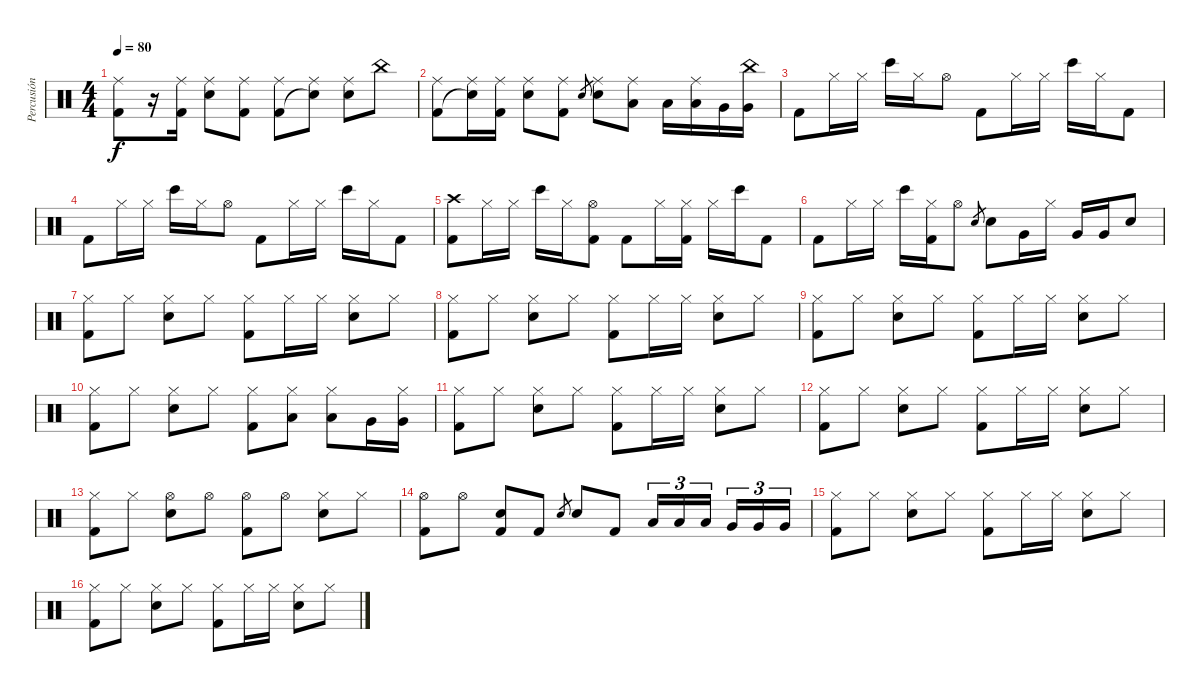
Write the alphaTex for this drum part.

\track ("Percusión" "Percusión") {instrument percussion}
\staff {score}
\articulation defaults
\ts (4 4)
\tempo 80
\clef neutral
\ks c
("Kick (hit) 2" "Ride (middle)").8{dy f} r.16 ("Kick (hit) 2" "Ride (middle)").16 ("Electric Snare (hit)" "Ride (middle)").8 ("Kick (hit) 2" "Ride (middle)").8 ("Kick (hit) 2" "Ride (middle)").8 ("Snare (hit)"{t} "Ride (middle)").8 ("Electric Snare (hit)" "Ride (middle)").8 "China (hit)".8 |
("Kick (hit) 2" "Ride (middle)").8 ("Snare (hit)"{t} "Ride (middle)").16 ("Kick (hit) 2" "Ride (middle)").16 ("Electric Snare (hit)" "Ride (middle)").8 ("Kick (hit) 2" "Ride (middle)").8 "Electric Snare (hit)".8{gr} ("Electric Snare (hit)" "Ride (middle)").8 ("Low Tom (hit)" "Ride (middle)").8 "Low Tom (hit)".16 ("Low Tom (hit)" "Ride (middle)").16 "Very Low Tom (hit)".16 ("Very Low Tom (hit)" "China (hit)").16 |
"Kick (hit) 2".8{volume 8} "Hi-Hat (closed)".16 "Hi-Hat (closed)".16 "Bongo High (hit)".16 "Hi-Hat (closed)".16 "Hi-Hat (open)".8 "Kick (hit) 2".8 "Hi-Hat (closed)".16 "Hi-Hat (closed)".16 "Bongo High (hit)".16 "Hi-Hat (closed)".16 "Kick (hit) 2".8 |
"Kick (hit) 2".8 "Hi-Hat (closed)".16 "Hi-Hat (closed)".16 "Bongo High (hit)".16 "Hi-Hat (closed)".16 "Hi-Hat (open)".8 "Kick (hit) 2".8 "Hi-Hat (closed)".16 "Hi-Hat (closed)".16 "Bongo High (hit)".16 "Hi-Hat (closed)".16 "Kick (hit) 2".8 |
("Kick (hit) 2" "Crash high (hit)").8 "Hi-Hat (closed)".16 "Hi-Hat (closed)".16 "Bongo High (hit)".16 "Hi-Hat (closed)".16 ("Kick (hit) 2" "Hi-Hat (open)").8 "Kick (hit) 2".8 "Hi-Hat (closed)".16 ("Kick (hit) 2" "Hi-Hat (closed)").16 "Hi-Hat (closed)".16 "Bongo High (hit)".16 "Kick (hit) 2".8 |
"Kick (hit) 2".8{volume 13} "Hi-Hat (closed)".16 "Hi-Hat (closed)".16 "Bongo High (hit)".16 ("Kick (hit) 2" "Hi-Hat (closed)").16 "Hi-Hat (open)".8 "Electric Snare (hit)".8{gr} "Electric Snare (hit)".8 "Very Low Tom (hit)".16 "Hi-Hat (closed)".16 "Very Low Tom (hit)".16 "Very Low Tom (hit)".16 "Electric Snare (hit)".8 |
("Kick (hit) 2" "Hi-Hat (closed)").8 "Hi-Hat (closed)".8 ("Electric Snare (hit)" "Hi-Hat (closed)").8 "Hi-Hat (closed)".8 ("Kick (hit) 2" "Hi-Hat (closed)").8 "Hi-Hat (closed)".16 "Hi-Hat (closed)".16 ("Electric Snare (hit)" "Hi-Hat (closed)").8 "Hi-Hat (closed)".8 |
("Kick (hit) 2" "Hi-Hat (closed)").8 "Hi-Hat (closed)".8 ("Electric Snare (hit)" "Hi-Hat (closed)").8 "Hi-Hat (closed)".8 ("Kick (hit) 2" "Hi-Hat (closed)").8 "Hi-Hat (closed)".16 "Hi-Hat (closed)".16 ("Electric Snare (hit)" "Hi-Hat (closed)").8 "Hi-Hat (closed)".8 |
("Kick (hit) 2" "Hi-Hat (closed)").8 "Hi-Hat (closed)".8 ("Electric Snare (hit)" "Hi-Hat (closed)").8 "Hi-Hat (closed)".8 ("Kick (hit) 2" "Hi-Hat (closed)").8 "Hi-Hat (closed)".16 "Hi-Hat (closed)".16 ("Electric Snare (hit)" "Hi-Hat (closed)").8 "Hi-Hat (closed)".8 |
("Kick (hit) 2" "Hi-Hat (closed)").8 "Hi-Hat (closed)".8 ("Electric Snare (hit)" "Hi-Hat (closed)").8 "Hi-Hat (closed)".8 ("Kick (hit) 2" "Hi-Hat (closed)").8 ("Hi-Hat (closed)" "Low Tom (hit)").8 ("Hi-Hat (closed)" "Low Tom (hit)").8 "Very Low Tom (hit)".16 ("Hi-Hat (closed)" "Very Low Tom (hit)").16 |
("Kick (hit) 2" "Hi-Hat (closed)").8 "Hi-Hat (closed)".8 ("Electric Snare (hit)" "Hi-Hat (closed)").8 "Hi-Hat (closed)".8 ("Kick (hit) 2" "Hi-Hat (closed)").8 "Hi-Hat (closed)".16 "Hi-Hat (closed)".16 ("Electric Snare (hit)" "Hi-Hat (closed)").8 "Hi-Hat (closed)".8 |
("Kick (hit) 2" "Hi-Hat (closed)").8 "Hi-Hat (closed)".8 ("Electric Snare (hit)" "Hi-Hat (closed)").8 "Hi-Hat (closed)".8 ("Kick (hit) 2" "Hi-Hat (closed)").8 "Hi-Hat (closed)".16 "Hi-Hat (closed)".16 ("Electric Snare (hit)" "Hi-Hat (closed)").8 "Hi-Hat (closed)".8 |
("Kick (hit) 2" "Hi-Hat (closed)").8 "Hi-Hat (closed)".8 ("Electric Snare (hit)" "Hi-Hat (open)").8 "Hi-Hat (open)".8 ("Kick (hit) 2" "Hi-Hat (open)").8 "Hi-Hat (open)".8 ("Electric Snare (hit)" "Hi-Hat (closed)").8 "Hi-Hat (closed)".8 |
("Kick (hit) 2" "Hi-Hat (open)").8 "Hi-Hat (open)".8 ("Electric Snare (hit)" "Kick (hit) 2").8 "Kick (hit) 2".8 "Electric Snare (hit)".8{gr} "Electric Snare (hit)".8 "Kick (hit) 2".8 "Low Tom (hit)".16{tu (3 2)} "Low Tom (hit)".16{tu (3 2)} "Low Tom (hit)".16{tu (3 2)} "Very Low Tom (hit)".16{tu (3 2)} "Very Low Tom (hit)".16{tu (3 2)} "Very Low Tom (hit)".16{tu (3 2)} |
("Kick (hit) 2" "Hi-Hat (closed)").8 "Hi-Hat (closed)".8 ("Electric Snare (hit)" "Hi-Hat (closed)").8 "Hi-Hat (closed)".8 ("Kick (hit) 2" "Hi-Hat (closed)").8 "Hi-Hat (closed)".16 "Hi-Hat (closed)".16 ("Electric Snare (hit)" "Hi-Hat (closed)").8 "Hi-Hat (closed)".8 |
("Kick (hit) 2" "Hi-Hat (closed)").8 "Hi-Hat (closed)".8 ("Electric Snare (hit)" "Hi-Hat (closed)").8 "Hi-Hat (closed)".8 ("Kick (hit) 2" "Hi-Hat (closed)").8 "Hi-Hat (closed)".16 "Hi-Hat (closed)".16 ("Electric Snare (hit)" "Hi-Hat (closed)").8 "Hi-Hat (closed)".8
